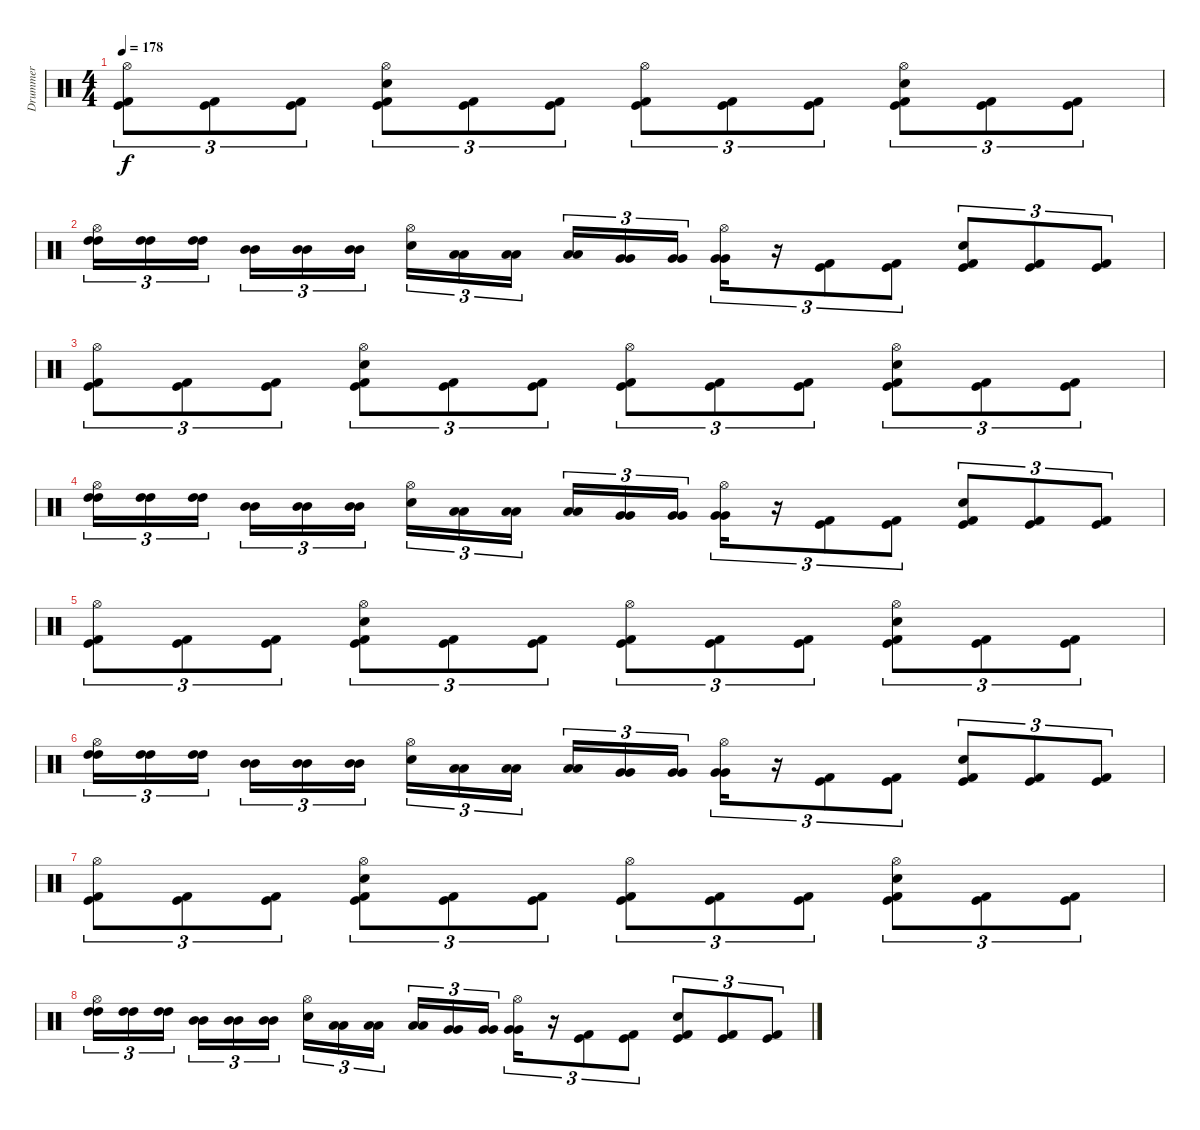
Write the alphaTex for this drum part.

\track ("Drummer" "Drummer") {instrument percussion}
\staff {score}
\articulation defaults
\ts (4 4)
\tempo 178
\clef neutral
\ks c
("Hi-Hat (open)" "Kick (hit)" "Kick (hit) 2").8{tu (3 2) dy f} ("Kick (hit)" "Kick (hit) 2").8{tu (3 2)} ("Kick (hit)" "Kick (hit) 2").8{tu (3 2)} ("Hi-Hat (open)" "Snare (hit) 2" "Kick (hit)" "Kick (hit) 2").8{tu (3 2)} ("Kick (hit)" "Kick (hit) 2").8{tu (3 2)} ("Kick (hit)" "Kick (hit) 2").8{tu (3 2)} ("Hi-Hat (open)" "Kick (hit)" "Kick (hit) 2").8{tu (3 2)} ("Kick (hit)" "Kick (hit) 2").8{tu (3 2)} ("Kick (hit)" "Kick (hit) 2").8{tu (3 2)} ("Hi-Hat (open)" "Snare (hit) 2" "Kick (hit)" "Kick (hit) 2").8{tu (3 2)} ("Kick (hit)" "Kick (hit) 2").8{tu (3 2)} ("Kick (hit)" "Kick (hit) 2").8{tu (3 2)} |
("Hi-Hat (open)" "High Tom (hit)" "High Tom (hit)").16{tu (3 2)} ("High Tom (hit)" "High Tom (hit)").16{tu (3 2)} ("High Tom (hit)" "High Tom (hit)").16{tu (3 2)} ("Mid Tom (hit)" "Mid Tom (hit)").16{tu (3 2)} ("Mid Tom (hit)" "Mid Tom (hit)").16{tu (3 2)} ("Mid Tom (hit)" "Mid Tom (hit)").16{tu (3 2)} ("Hi-Hat (open)" "Snare (hit) 2").16{tu (3 2)} ("Low Tom (hit)" "Low Tom (hit)").16{tu (3 2)} ("Low Tom (hit)" "Low Tom (hit)").16{tu (3 2)} ("Low Tom (hit)" "Low Tom (hit)").16{tu (3 2)} ("Very Low Tom (hit)" "Very Low Tom (hit)").16{tu (3 2)} ("Very Low Tom (hit)" "Very Low Tom (hit)").16{tu (3 2)} ("Hi-Hat (open)" "Very Low Tom (hit)" "Very Low Tom (hit)").16{tu (3 2)} r.16{tu (3 2)} ("Kick (hit)" "Kick (hit) 2").8{tu (3 2)} ("Kick (hit)" "Kick (hit) 2").8{tu (3 2)} ("Snare (hit) 2" "Kick (hit)" "Kick (hit) 2").8{tu (3 2)} ("Kick (hit)" "Kick (hit) 2").8{tu (3 2)} ("Kick (hit)" "Kick (hit) 2").8{tu (3 2)} |
("Hi-Hat (open)" "Kick (hit)" "Kick (hit) 2").8{tu (3 2)} ("Kick (hit)" "Kick (hit) 2").8{tu (3 2)} ("Kick (hit)" "Kick (hit) 2").8{tu (3 2)} ("Hi-Hat (open)" "Snare (hit) 2" "Kick (hit)" "Kick (hit) 2").8{tu (3 2)} ("Kick (hit)" "Kick (hit) 2").8{tu (3 2)} ("Kick (hit)" "Kick (hit) 2").8{tu (3 2)} ("Hi-Hat (open)" "Kick (hit)" "Kick (hit) 2").8{tu (3 2)} ("Kick (hit)" "Kick (hit) 2").8{tu (3 2)} ("Kick (hit)" "Kick (hit) 2").8{tu (3 2)} ("Hi-Hat (open)" "Snare (hit) 2" "Kick (hit)" "Kick (hit) 2").8{tu (3 2)} ("Kick (hit)" "Kick (hit) 2").8{tu (3 2)} ("Kick (hit)" "Kick (hit) 2").8{tu (3 2)} |
("Hi-Hat (open)" "High Tom (hit)" "High Tom (hit)").16{tu (3 2)} ("High Tom (hit)" "High Tom (hit)").16{tu (3 2)} ("High Tom (hit)" "High Tom (hit)").16{tu (3 2)} ("Mid Tom (hit)" "Mid Tom (hit)").16{tu (3 2)} ("Mid Tom (hit)" "Mid Tom (hit)").16{tu (3 2)} ("Mid Tom (hit)" "Mid Tom (hit)").16{tu (3 2)} ("Hi-Hat (open)" "Snare (hit) 2").16{tu (3 2)} ("Low Tom (hit)" "Low Tom (hit)").16{tu (3 2)} ("Low Tom (hit)" "Low Tom (hit)").16{tu (3 2)} ("Low Tom (hit)" "Low Tom (hit)").16{tu (3 2)} ("Very Low Tom (hit)" "Very Low Tom (hit)").16{tu (3 2)} ("Very Low Tom (hit)" "Very Low Tom (hit)").16{tu (3 2)} ("Hi-Hat (open)" "Very Low Tom (hit)" "Very Low Tom (hit)").16{tu (3 2)} r.16{tu (3 2)} ("Kick (hit)" "Kick (hit) 2").8{tu (3 2)} ("Kick (hit)" "Kick (hit) 2").8{tu (3 2)} ("Snare (hit) 2" "Kick (hit)" "Kick (hit) 2").8{tu (3 2)} ("Kick (hit)" "Kick (hit) 2").8{tu (3 2)} ("Kick (hit)" "Kick (hit) 2").8{tu (3 2)} |
("Hi-Hat (open)" "Kick (hit)" "Kick (hit) 2").8{tu (3 2)} ("Kick (hit)" "Kick (hit) 2").8{tu (3 2)} ("Kick (hit)" "Kick (hit) 2").8{tu (3 2)} ("Hi-Hat (open)" "Snare (hit) 2" "Kick (hit)" "Kick (hit) 2").8{tu (3 2)} ("Kick (hit)" "Kick (hit) 2").8{tu (3 2)} ("Kick (hit)" "Kick (hit) 2").8{tu (3 2)} ("Hi-Hat (open)" "Kick (hit)" "Kick (hit) 2").8{tu (3 2)} ("Kick (hit)" "Kick (hit) 2").8{tu (3 2)} ("Kick (hit)" "Kick (hit) 2").8{tu (3 2)} ("Hi-Hat (open)" "Snare (hit) 2" "Kick (hit)" "Kick (hit) 2").8{tu (3 2)} ("Kick (hit)" "Kick (hit) 2").8{tu (3 2)} ("Kick (hit)" "Kick (hit) 2").8{tu (3 2)} |
("Hi-Hat (open)" "High Tom (hit)" "High Tom (hit)").16{tu (3 2)} ("High Tom (hit)" "High Tom (hit)").16{tu (3 2)} ("High Tom (hit)" "High Tom (hit)").16{tu (3 2)} ("Mid Tom (hit)" "Mid Tom (hit)").16{tu (3 2)} ("Mid Tom (hit)" "Mid Tom (hit)").16{tu (3 2)} ("Mid Tom (hit)" "Mid Tom (hit)").16{tu (3 2)} ("Hi-Hat (open)" "Snare (hit) 2").16{tu (3 2)} ("Low Tom (hit)" "Low Tom (hit)").16{tu (3 2)} ("Low Tom (hit)" "Low Tom (hit)").16{tu (3 2)} ("Low Tom (hit)" "Low Tom (hit)").16{tu (3 2)} ("Very Low Tom (hit)" "Very Low Tom (hit)").16{tu (3 2)} ("Very Low Tom (hit)" "Very Low Tom (hit)").16{tu (3 2)} ("Hi-Hat (open)" "Very Low Tom (hit)" "Very Low Tom (hit)").16{tu (3 2)} r.16{tu (3 2)} ("Kick (hit)" "Kick (hit) 2").8{tu (3 2)} ("Kick (hit)" "Kick (hit) 2").8{tu (3 2)} ("Snare (hit) 2" "Kick (hit)" "Kick (hit) 2").8{tu (3 2)} ("Kick (hit)" "Kick (hit) 2").8{tu (3 2)} ("Kick (hit)" "Kick (hit) 2").8{tu (3 2)} |
("Hi-Hat (open)" "Kick (hit)" "Kick (hit) 2").8{tu (3 2)} ("Kick (hit)" "Kick (hit) 2").8{tu (3 2)} ("Kick (hit)" "Kick (hit) 2").8{tu (3 2)} ("Hi-Hat (open)" "Snare (hit) 2" "Kick (hit)" "Kick (hit) 2").8{tu (3 2)} ("Kick (hit)" "Kick (hit) 2").8{tu (3 2)} ("Kick (hit)" "Kick (hit) 2").8{tu (3 2)} ("Hi-Hat (open)" "Kick (hit)" "Kick (hit) 2").8{tu (3 2)} ("Kick (hit)" "Kick (hit) 2").8{tu (3 2)} ("Kick (hit)" "Kick (hit) 2").8{tu (3 2)} ("Hi-Hat (open)" "Snare (hit) 2" "Kick (hit)" "Kick (hit) 2").8{tu (3 2)} ("Kick (hit)" "Kick (hit) 2").8{tu (3 2)} ("Kick (hit)" "Kick (hit) 2").8{tu (3 2)} |
("Hi-Hat (open)" "High Tom (hit)" "High Tom (hit)").16{tu (3 2)} ("High Tom (hit)" "High Tom (hit)").16{tu (3 2)} ("High Tom (hit)" "High Tom (hit)").16{tu (3 2)} ("Mid Tom (hit)" "Mid Tom (hit)").16{tu (3 2)} ("Mid Tom (hit)" "Mid Tom (hit)").16{tu (3 2)} ("Mid Tom (hit)" "Mid Tom (hit)").16{tu (3 2)} ("Hi-Hat (open)" "Snare (hit) 2").16{tu (3 2)} ("Low Tom (hit)" "Low Tom (hit)").16{tu (3 2)} ("Low Tom (hit)" "Low Tom (hit)").16{tu (3 2)} ("Low Tom (hit)" "Low Tom (hit)").16{tu (3 2)} ("Very Low Tom (hit)" "Very Low Tom (hit)").16{tu (3 2)} ("Very Low Tom (hit)" "Very Low Tom (hit)").16{tu (3 2)} ("Hi-Hat (open)" "Very Low Tom (hit)" "Very Low Tom (hit)").16{tu (3 2)} r.16{tu (3 2)} ("Kick (hit)" "Kick (hit) 2").8{tu (3 2)} ("Kick (hit)" "Kick (hit) 2").8{tu (3 2)} ("Snare (hit) 2" "Kick (hit)" "Kick (hit) 2").8{tu (3 2)} ("Kick (hit)" "Kick (hit) 2").8{tu (3 2)} ("Kick (hit)" "Kick (hit) 2").8{tu (3 2)}
